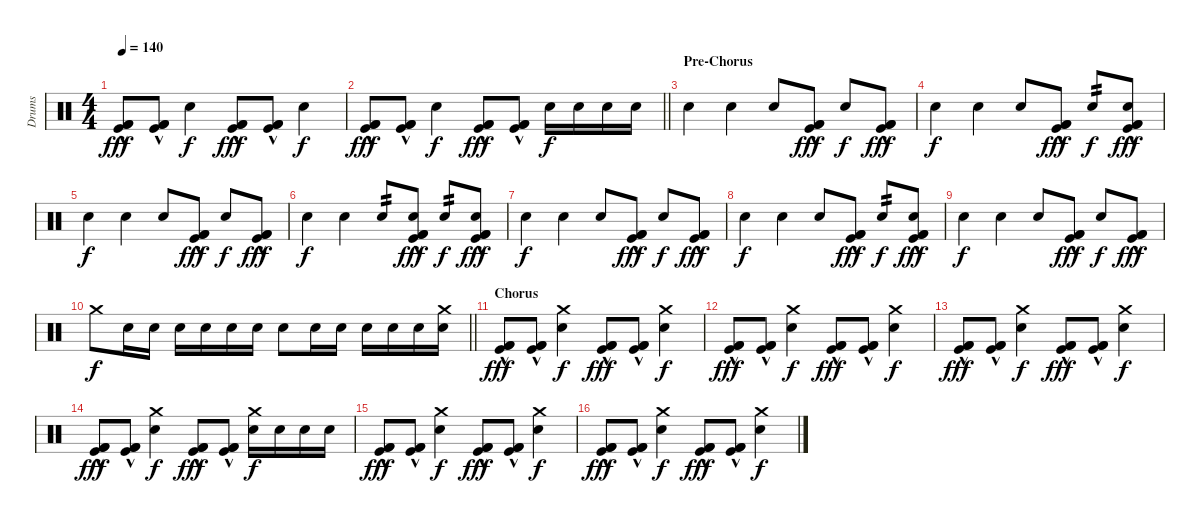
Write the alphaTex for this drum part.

\track ("Drums" "Drums") {instrument percussion}
\staff {score}
\articulation defaults
\ts (4 4)
\tempo 140
\clef neutral
\ks c
("Kick (hit) 2"{hac} "Kick (hit)"{hac} "Kick (hit) 2"{hac}).8{dy fff} ("Kick (hit) 2"{hac} "Kick (hit)"{hac} "Kick (hit) 2"{hac}).8 "Snare (hit) 2".4{dy f} ("Kick (hit) 2"{hac} "Kick (hit)"{hac} "Kick (hit) 2"{hac}).8{dy fff} ("Kick (hit) 2"{hac} "Kick (hit)"{hac} "Kick (hit) 2"{hac}).8 "Snare (hit) 2".4{dy f} |
\barLineRight lightlight
("Kick (hit) 2"{hac} "Kick (hit)"{hac} "Kick (hit) 2"{hac}).8{dy fff} ("Kick (hit) 2"{hac} "Kick (hit)"{hac} "Kick (hit) 2"{hac}).8 "Snare (hit) 2".4{dy f} ("Kick (hit) 2"{hac} "Kick (hit)"{hac} "Kick (hit) 2"{hac}).8{dy fff} ("Kick (hit) 2"{hac} "Kick (hit)"{hac} "Kick (hit) 2"{hac}).8 "Snare (hit) 2".16{dy f} "Snare (hit) 2".16 "Snare (hit) 2".16 "Snare (hit) 2".16 |
\section ("" "Pre-Chorus")
"Snare (hit) 2".4 "Snare (hit) 2".4 "Snare (hit) 2".8 ("Kick (hit) 2"{hac} "Kick (hit)"{hac} "Kick (hit) 2"{hac}).8{dy fff} "Snare (hit) 2".8{dy f} ("Kick (hit) 2"{hac} "Kick (hit)"{hac} "Kick (hit) 2"{hac}).8{dy fff} |
"Snare (hit) 2".4{dy f} "Snare (hit) 2".4 "Snare (hit) 2".8 ("Kick (hit) 2"{hac} "Kick (hit)"{hac} "Kick (hit) 2"{hac}).8{dy fff} "Snare (hit) 2".8{tp 2 dy f} ("Snare (hit) 2" "Kick (hit) 2"{hac} "Kick (hit)"{hac} "Kick (hit) 2"{hac}).8{dy fff} |
"Snare (hit) 2".4{dy f} "Snare (hit) 2".4 "Snare (hit) 2".8 ("Kick (hit) 2"{hac} "Kick (hit)"{hac} "Kick (hit) 2"{hac}).8{dy fff} "Snare (hit) 2".8{dy f} ("Kick (hit) 2"{hac} "Kick (hit)"{hac} "Kick (hit) 2"{hac}).8{dy fff} |
"Snare (hit) 2".4{dy f} "Snare (hit) 2".4 "Snare (hit) 2".8{tp 2} ("Snare (hit) 2" "Kick (hit) 2"{hac} "Kick (hit)"{hac} "Kick (hit) 2"{hac}).8{dy fff} "Snare (hit) 2".8{tp 2 dy f} ("Snare (hit) 2" "Kick (hit) 2"{hac} "Kick (hit)"{hac} "Kick (hit) 2"{hac}).8{dy fff} |
"Snare (hit) 2".4{dy f} "Snare (hit) 2".4 "Snare (hit) 2".8 ("Kick (hit) 2"{hac} "Kick (hit)"{hac} "Kick (hit) 2"{hac}).8{dy fff} "Snare (hit) 2".8{dy f} ("Kick (hit) 2"{hac} "Kick (hit)"{hac} "Kick (hit) 2"{hac}).8{dy fff} |
"Snare (hit) 2".4{dy f} "Snare (hit) 2".4 "Snare (hit) 2".8 ("Kick (hit) 2"{hac} "Kick (hit)"{hac} "Kick (hit) 2"{hac}).8{dy fff} "Snare (hit) 2".8{tp 2 dy f} ("Snare (hit) 2" "Kick (hit) 2"{hac} "Kick (hit)"{hac} "Kick (hit) 2"{hac}).8{dy fff} |
"Snare (hit) 2".4{dy f} "Snare (hit) 2".4 "Snare (hit) 2".8 ("Kick (hit) 2"{hac} "Kick (hit)"{hac} "Kick (hit) 2"{hac}).8{dy fff} "Snare (hit) 2".8{dy f} ("Kick (hit) 2"{hac} "Kick (hit)"{hac} "Kick (hit) 2"{hac}).8{dy fff} |
\barLineRight lightlight "Crash medium (hit)".8{dy f} "Snare (hit) 2".16 "Snare (hit) 2".16 "Snare (hit) 2".16 "Snare (hit) 2".16 "Snare (hit) 2".16 "Snare (hit) 2".16 "Snare (hit) 2".8 "Snare (hit) 2".16 "Snare (hit) 2".16 "Snare (hit) 2".16 "Snare (hit) 2".16 "Snare (hit) 2".16
("Snare (hit) 2" "Crash medium (hit)").16 |
\section ("" "Chorus")
("Kick (hit) 2"{hac} "Kick (hit)"{hac} "Kick (hit) 2"{hac}).8{dy fff} ("Kick (hit) 2"{hac} "Kick (hit)"{hac} "Kick (hit) 2"{hac}).8 ("Snare (hit) 2" "Crash medium (hit)").4{dy f} ("Kick (hit) 2"{hac} "Kick (hit)"{hac} "Kick (hit) 2"{hac}).8{dy fff} ("Kick (hit) 2"{hac} "Kick (hit)"{hac} "Kick (hit) 2"{hac}).8 ("Snare (hit) 2" "Crash medium (hit)").4{dy f} |
("Kick (hit) 2"{hac} "Kick (hit)"{hac} "Kick (hit) 2"{hac}).8{dy fff} ("Kick (hit) 2"{hac} "Kick (hit)"{hac} "Kick (hit) 2"{hac}).8 ("Snare (hit) 2" "Crash medium (hit)").4{dy f} ("Kick (hit) 2"{hac} "Kick (hit)"{hac} "Kick (hit) 2"{hac}).8{dy fff} ("Kick (hit) 2"{hac} "Kick (hit)"{hac} "Kick (hit) 2"{hac}).8 ("Snare (hit) 2" "Crash medium (hit)").4{dy f} |
("Kick (hit) 2"{hac} "Kick (hit)"{hac} "Kick (hit) 2"{hac}).8{dy fff} ("Kick (hit) 2"{hac} "Kick (hit)"{hac} "Kick (hit) 2"{hac}).8 ("Snare (hit) 2" "Crash medium (hit)").4{dy f} ("Kick (hit) 2"{hac} "Kick (hit)"{hac} "Kick (hit) 2"{hac}).8{dy fff} ("Kick (hit) 2"{hac} "Kick (hit)"{hac} "Kick (hit) 2"{hac}).8 ("Snare (hit) 2" "Crash medium (hit)").4{dy f} |
("Kick (hit) 2"{hac} "Kick (hit)"{hac} "Kick (hit) 2"{hac}).8{dy fff} ("Kick (hit) 2"{hac} "Kick (hit)"{hac} "Kick (hit) 2"{hac}).8 ("Snare (hit) 2" "Crash medium (hit)").4{dy f} ("Kick (hit) 2"{hac} "Kick (hit)"{hac} "Kick (hit) 2"{hac}).8{dy fff} ("Kick (hit) 2"{hac} "Kick (hit)"{hac} "Kick (hit) 2"{hac}).8 ("Snare (hit) 2" "Crash medium (hit)").16{dy f} "Snare (hit) 2".16 "Snare (hit) 2".16 "Snare (hit) 2".16 |
("Kick (hit) 2"{hac} "Kick (hit)"{hac} "Kick (hit) 2"{hac}).8{dy fff} ("Kick (hit) 2"{hac} "Kick (hit)"{hac} "Kick (hit) 2"{hac}).8 ("Snare (hit) 2" "Crash medium (hit)").4{dy f} ("Kick (hit) 2"{hac} "Kick (hit)"{hac} "Kick (hit) 2"{hac}).8{dy fff} ("Kick (hit) 2"{hac} "Kick (hit)"{hac} "Kick (hit) 2"{hac}).8 ("Snare (hit) 2" "Crash medium (hit)").4{dy f} |
("Kick (hit) 2"{hac} "Kick (hit)"{hac} "Kick (hit) 2"{hac}).8{dy fff} ("Kick (hit) 2"{hac} "Kick (hit)"{hac} "Kick (hit) 2"{hac}).8 ("Snare (hit) 2" "Crash medium (hit)").4{dy f} ("Kick (hit) 2"{hac} "Kick (hit)"{hac} "Kick (hit) 2"{hac}).8{dy fff} ("Kick (hit) 2"{hac} "Kick (hit)"{hac} "Kick (hit) 2"{hac}).8 ("Snare (hit) 2" "Crash medium (hit)").4{dy f}
